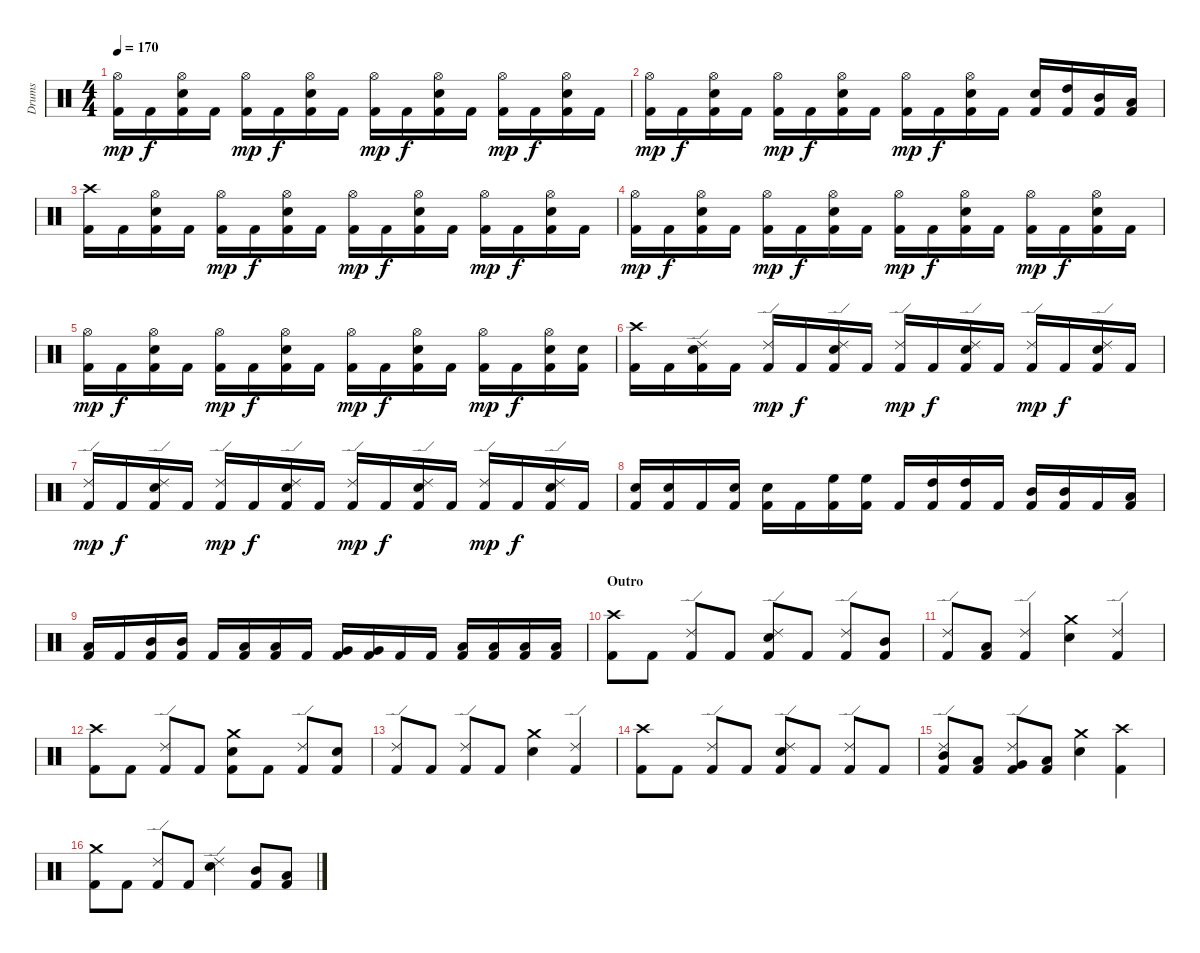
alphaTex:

\track ("Drums" "Drums") {instrument percussion}
\staff {score}
\articulation defaults
\ts (4 4)
\tempo 170
\clef neutral
\ks c
("Kick (hit) 2" "Hi-Hat (open)").16{dy mp} "Kick (hit) 2".16{dy f} ("Kick (hit) 2" "Electric Snare (hit)" "Hi-Hat (open)").16 "Kick (hit) 2".16 ("Kick (hit) 2" "Hi-Hat (open)").16{dy mp} "Kick (hit) 2".16{dy f} ("Kick (hit) 2" "Electric Snare (hit)" "Hi-Hat (open)").16 "Kick (hit) 2".16 ("Kick (hit) 2" "Hi-Hat (open)").16{dy mp} "Kick (hit) 2".16{dy f} ("Kick (hit) 2" "Electric Snare (hit)" "Hi-Hat (open)").16 "Kick (hit) 2".16 ("Kick (hit) 2" "Hi-Hat (open)").16{dy mp} "Kick (hit) 2".16{dy f} ("Kick (hit) 2" "Electric Snare (hit)" "Hi-Hat (open)").16 "Kick (hit) 2".16 |
("Kick (hit) 2" "Hi-Hat (open)").16{dy mp} "Kick (hit) 2".16{dy f} ("Kick (hit) 2" "Electric Snare (hit)" "Hi-Hat (open)").16 "Kick (hit) 2".16 ("Kick (hit) 2" "Hi-Hat (open)").16{dy mp} "Kick (hit) 2".16{dy f} ("Kick (hit) 2" "Electric Snare (hit)" "Hi-Hat (open)").16 "Kick (hit) 2".16 ("Kick (hit) 2" "Hi-Hat (open)").16{dy mp} "Kick (hit) 2".16{dy f} ("Kick (hit) 2" "Electric Snare (hit)" "Hi-Hat (open)").16 "Kick (hit) 2".16 ("Kick (hit) 2" "Electric Snare (hit)").16 ("Kick (hit) 2" "High Tom (hit)").16 ("Kick (hit) 2" "Mid Tom (hit)").16 ("Kick (hit) 2" "Low Tom (hit)").16 |
("Kick (hit) 2" "Crash high (hit)").16 "Kick (hit) 2".16 ("Kick (hit) 2" "Electric Snare (hit)" "Hi-Hat (open)").16 "Kick (hit) 2".16 ("Kick (hit) 2" "Hi-Hat (open)").16{dy mp} "Kick (hit) 2".16{dy f} ("Kick (hit) 2" "Electric Snare (hit)" "Hi-Hat (open)").16 "Kick (hit) 2".16 ("Kick (hit) 2" "Hi-Hat (open)").16{dy mp} "Kick (hit) 2".16{dy f} ("Kick (hit) 2" "Electric Snare (hit)" "Hi-Hat (open)").16 "Kick (hit) 2".16 ("Kick (hit) 2" "Hi-Hat (open)").16{dy mp} "Kick (hit) 2".16{dy f} ("Kick (hit) 2" "Electric Snare (hit)" "Hi-Hat (open)").16 "Kick (hit) 2".16 |
("Kick (hit) 2" "Hi-Hat (open)").16{dy mp} "Kick (hit) 2".16{dy f} ("Kick (hit) 2" "Electric Snare (hit)" "Hi-Hat (open)").16 "Kick (hit) 2".16 ("Kick (hit) 2" "Hi-Hat (open)").16{dy mp} "Kick (hit) 2".16{dy f} ("Kick (hit) 2" "Electric Snare (hit)" "Hi-Hat (open)").16 "Kick (hit) 2".16 ("Kick (hit) 2" "Hi-Hat (open)").16{dy mp} "Kick (hit) 2".16{dy f} ("Kick (hit) 2" "Electric Snare (hit)" "Hi-Hat (open)").16 "Kick (hit) 2".16 ("Kick (hit) 2" "Hi-Hat (open)").16{dy mp} "Kick (hit) 2".16{dy f} ("Kick (hit) 2" "Electric Snare (hit)" "Hi-Hat (open)").16 "Kick (hit) 2".16 |
("Kick (hit) 2" "Hi-Hat (open)").16{dy mp} "Kick (hit) 2".16{dy f} ("Kick (hit) 2" "Electric Snare (hit)" "Hi-Hat (open)").16 "Kick (hit) 2".16 ("Kick (hit) 2" "Hi-Hat (open)").16{dy mp} "Kick (hit) 2".16{dy f} ("Kick (hit) 2" "Electric Snare (hit)" "Hi-Hat (open)").16 "Kick (hit) 2".16 ("Kick (hit) 2" "Hi-Hat (open)").16{dy mp} "Kick (hit) 2".16{dy f} ("Kick (hit) 2" "Electric Snare (hit)" "Hi-Hat (open)").16 "Kick (hit) 2".16 ("Kick (hit) 2" "Hi-Hat (open)").16{dy mp} "Kick (hit) 2".16{dy f} ("Kick (hit) 2" "Electric Snare (hit)" "Hi-Hat (open)").16 ("Kick (hit) 2" "Electric Snare (hit)").16 |
("Kick (hit) 2" "Crash high (hit)").16 "Kick (hit) 2".16 ("Kick (hit) 2" "Electric Snare (hit)" "Ride (edge) 2").16 "Kick (hit) 2".16 ("Kick (hit) 2" "Ride (edge) 2").16{dy mp} "Kick (hit) 2".16{dy f} ("Kick (hit) 2" "Electric Snare (hit)" "Ride (edge) 2").16 "Kick (hit) 2".16 ("Kick (hit) 2" "Ride (edge) 2").16{dy mp} "Kick (hit) 2".16{dy f} ("Kick (hit) 2" "Electric Snare (hit)" "Ride (edge) 2").16 "Kick (hit) 2".16 ("Kick (hit) 2" "Ride (edge) 2").16{dy mp} "Kick (hit) 2".16{dy f} ("Kick (hit) 2" "Electric Snare (hit)" "Ride (edge) 2").16 "Kick (hit) 2".16 |
("Kick (hit) 2" "Ride (edge) 2").16{dy mp} "Kick (hit) 2".16{dy f} ("Kick (hit) 2" "Electric Snare (hit)" "Ride (edge) 2").16 "Kick (hit) 2".16 ("Kick (hit) 2" "Ride (edge) 2").16{dy mp} "Kick (hit) 2".16{dy f} ("Kick (hit) 2" "Electric Snare (hit)" "Ride (edge) 2").16 "Kick (hit) 2".16 ("Kick (hit) 2" "Ride (edge) 2").16{dy mp} "Kick (hit) 2".16{dy f} ("Kick (hit) 2" "Electric Snare (hit)" "Ride (edge) 2").16 "Kick (hit) 2".16 ("Kick (hit) 2" "Ride (edge) 2").16{dy mp} "Kick (hit) 2".16{dy f} ("Kick (hit) 2" "Electric Snare (hit)" "Ride (edge) 2").16 "Kick (hit) 2".16 |
("Kick (hit) 2" "Electric Snare (hit)").16 ("Kick (hit) 2" "Electric Snare (hit)").16 "Kick (hit) 2".16 ("Kick (hit) 2" "Electric Snare (hit)").16 ("Kick (hit) 2" "Electric Snare (hit)").16 "Kick (hit) 2".16 ("Kick (hit) 2" "High Floor Tom (hit)").16 ("Kick (hit) 2" "High Floor Tom (hit)").16 "Kick (hit) 2".16 ("Kick (hit) 2" "High Tom (hit)").16 ("Kick (hit) 2" "High Tom (hit)").16 "Kick (hit) 2".16 ("Kick (hit) 2" "Mid Tom (hit)").16 ("Kick (hit) 2" "Mid Tom (hit)").16 "Kick (hit) 2".16 ("Kick (hit) 2" "Low Tom (hit)").16 |
("Kick (hit) 2" "Low Tom (hit)").16 "Kick (hit) 2".16 ("Kick (hit) 2" "Mid Tom (hit)").16 ("Kick (hit) 2" "Mid Tom (hit)").16 "Kick (hit) 2".16 ("Kick (hit) 2" "Low Tom (hit)").16 ("Kick (hit) 2" "Low Tom (hit)").16 "Kick (hit) 2".16 ("Kick (hit) 2" "Very Low Tom (hit)").16 ("Kick (hit) 2" "Very Low Tom (hit)").16 "Kick (hit) 2".16 "Kick (hit) 2".16 ("Kick (hit) 2" "Low Floor Tom (hit)").16 ("Kick (hit) 2" "Low Floor Tom (hit)").16 ("Kick (hit) 2" "Low Floor Tom (hit)").16 ("Kick (hit) 2" "Low Floor Tom (hit)").16 |
\section ("" "Outro")
("Kick (hit) 2" "Crash high (hit)").8 "Kick (hit) 2".8 ("Kick (hit) 2" "Ride (edge) 2").8 "Kick (hit) 2".8 ("Kick (hit) 2" "Electric Snare (hit)" "Ride (edge) 2").8 "Kick (hit) 2".8 ("Kick (hit) 2" "Ride (edge) 2").8 ("Kick (hit) 2" "Mid Tom (hit)").8 |
("Kick (hit) 2" "Ride (edge) 2").8 ("Kick (hit) 2" "Low Tom (hit)").8 ("Kick (hit) 2" "Ride (edge) 2").4 ("Electric Snare (hit)" "Crash medium (hit)").4 ("Kick (hit) 2" "Ride (edge) 2").4 |
("Kick (hit) 2" "Crash high (hit)").8 "Kick (hit) 2".8 ("Kick (hit) 2" "Ride (edge) 2").8 "Kick (hit) 2".8 ("Kick (hit) 2" "Electric Snare (hit)" "Crash medium (hit)").8 "Kick (hit) 2".8 ("Kick (hit) 2" "Ride (edge) 2").8 ("Kick (hit) 2" "Electric Snare (hit)").8 |
("Kick (hit) 2" "Ride (edge) 2").8 "Kick (hit) 2".8 ("Kick (hit) 2" "Ride (edge) 2").8 "Kick (hit) 2".8 ("Electric Snare (hit)" "Crash medium (hit)").4 ("Kick (hit) 2" "Ride (edge) 2").4 |
("Kick (hit) 2" "Crash high (hit)").8 "Kick (hit) 2".8 ("Kick (hit) 2" "Ride (edge) 2").8 "Kick (hit) 2".8 ("Kick (hit) 2" "Electric Snare (hit)" "Ride (edge) 2").8 "Kick (hit) 2".8 ("Kick (hit) 2" "Ride (edge) 2").8 "Kick (hit) 2".8 |
("Kick (hit) 2" "Mid Tom (hit)" "Ride (edge) 2").8 ("Kick (hit) 2" "Low Tom (hit)").8 ("Kick (hit) 2" "Very Low Tom (hit)" "Ride (edge) 2").8 ("Kick (hit) 2" "Low Floor Tom (hit)").8 ("Electric Snare (hit)" "Crash medium (hit)").4 ("Kick (hit) 2" "Crash high (hit)").4 |
("Kick (hit) 2" "Crash medium (hit)").8 "Kick (hit) 2".8 ("Kick (hit) 2" "Ride (edge) 2").8 "Kick (hit) 2".8 ("Electric Snare (hit)" "Ride (edge) 2").4 ("Kick (hit) 2" "Mid Tom (hit)").8 ("Kick (hit) 2" "Low Tom (hit)").8
